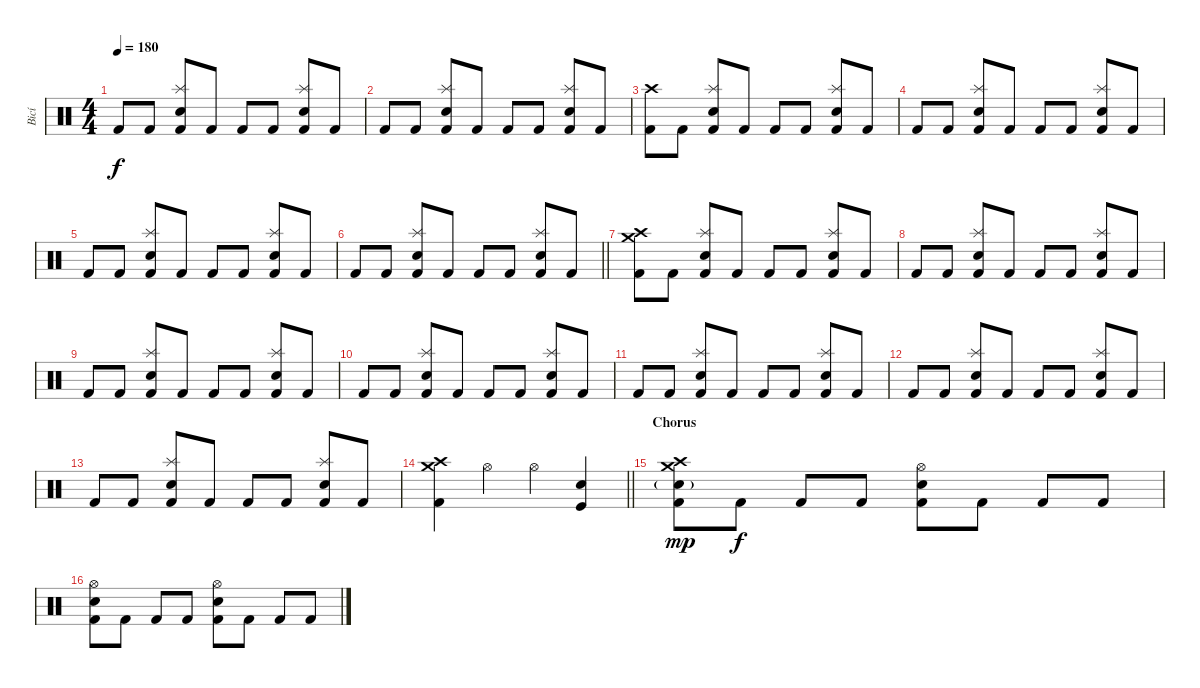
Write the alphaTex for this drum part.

\track ("Bicí" "Bicí") {instrument percussion}
\staff {score}
\articulation defaults
\ts (4 4)
\tempo 180
\clef neutral
\ks c "Kick (hit) 2".8{dy f} "Kick (hit) 2".8
("Splash (hit)" "Electric Snare (hit)" "Kick (hit) 2").8 "Kick (hit) 2".8 "Kick (hit) 2".8 "Kick (hit) 2".8 ("Splash (hit)" "Electric Snare (hit)" "Kick (hit) 2").8 "Kick (hit) 2".8 |
"Kick (hit) 2".8 "Kick (hit) 2".8 ("Splash (hit)" "Electric Snare (hit)" "Kick (hit) 2").8 "Kick (hit) 2".8 "Kick (hit) 2".8 "Kick (hit) 2".8 ("Splash (hit)" "Electric Snare (hit)" "Kick (hit) 2").8 "Kick (hit) 2".8 |
("Crash high (hit)" "Kick (hit) 2").8 "Kick (hit) 2".8 ("Splash (hit)" "Electric Snare (hit)" "Kick (hit) 2").8 "Kick (hit) 2".8 "Kick (hit) 2".8 "Kick (hit) 2".8 ("Splash (hit)" "Electric Snare (hit)" "Kick (hit) 2").8 "Kick (hit) 2".8 |
"Kick (hit) 2".8 "Kick (hit) 2".8 ("Splash (hit)" "Electric Snare (hit)" "Kick (hit) 2").8 "Kick (hit) 2".8 "Kick (hit) 2".8 "Kick (hit) 2".8 ("Splash (hit)" "Electric Snare (hit)" "Kick (hit) 2").8 "Kick (hit) 2".8 |
"Kick (hit) 2".8 "Kick (hit) 2".8 ("Splash (hit)" "Electric Snare (hit)" "Kick (hit) 2").8 "Kick (hit) 2".8 "Kick (hit) 2".8 "Kick (hit) 2".8 ("Splash (hit)" "Electric Snare (hit)" "Kick (hit) 2").8 "Kick (hit) 2".8 |
\barLineRight lightlight "Kick (hit) 2".8 "Kick (hit) 2".8
("Splash (hit)" "Electric Snare (hit)" "Kick (hit) 2").8 "Kick (hit) 2".8 "Kick (hit) 2".8 "Kick (hit) 2".8 ("Splash (hit)" "Electric Snare (hit)" "Kick (hit) 2").8 "Kick (hit) 2".8 |
("Crash high (hit)" "Crash medium (hit)" "Kick (hit) 2").8 "Kick (hit) 2".8 ("Splash (hit)" "Electric Snare (hit)" "Kick (hit) 2").8 "Kick (hit) 2".8 "Kick (hit) 2".8 "Kick (hit) 2".8 ("Splash (hit)" "Electric Snare (hit)" "Kick (hit) 2").8 "Kick (hit) 2".8 |
"Kick (hit) 2".8 "Kick (hit) 2".8 ("Splash (hit)" "Electric Snare (hit)" "Kick (hit) 2").8 "Kick (hit) 2".8 "Kick (hit) 2".8 "Kick (hit) 2".8 ("Splash (hit)" "Electric Snare (hit)" "Kick (hit) 2").8 "Kick (hit) 2".8 |
"Kick (hit) 2".8 "Kick (hit) 2".8 ("Splash (hit)" "Electric Snare (hit)" "Kick (hit) 2").8 "Kick (hit) 2".8 "Kick (hit) 2".8 "Kick (hit) 2".8 ("Splash (hit)" "Electric Snare (hit)" "Kick (hit) 2").8 "Kick (hit) 2".8 |
"Kick (hit) 2".8 "Kick (hit) 2".8 ("Splash (hit)" "Electric Snare (hit)" "Kick (hit) 2").8 "Kick (hit) 2".8 "Kick (hit) 2".8 "Kick (hit) 2".8 ("Splash (hit)" "Electric Snare (hit)" "Kick (hit) 2").8 "Kick (hit) 2".8 |
"Kick (hit) 2".8 "Kick (hit) 2".8 ("Splash (hit)" "Electric Snare (hit)" "Kick (hit) 2").8 "Kick (hit) 2".8 "Kick (hit) 2".8 "Kick (hit) 2".8 ("Splash (hit)" "Electric Snare (hit)" "Kick (hit) 2").8 "Kick (hit) 2".8 |
"Kick (hit) 2".8 "Kick (hit) 2".8 ("Splash (hit)" "Electric Snare (hit)" "Kick (hit) 2").8 "Kick (hit) 2".8 "Kick (hit) 2".8 "Kick (hit) 2".8 ("Splash (hit)" "Electric Snare (hit)" "Kick (hit) 2").8 "Kick (hit) 2".8 |
"Kick (hit) 2".8 "Kick (hit) 2".8 ("Splash (hit)" "Electric Snare (hit)" "Kick (hit) 2").8 "Kick (hit) 2".8 "Kick (hit) 2".8 "Kick (hit) 2".8 ("Splash (hit)" "Electric Snare (hit)" "Kick (hit) 2").8 "Kick (hit) 2".8 |
\barLineRight lightlight
("Crash high (hit)" "Crash medium (hit)" "Kick (hit) 2").4 "Hi-Hat (open)".4 "Hi-Hat (open)".4 ("Kick (hit)" "Electric Snare (hit)").4 |
\section ("" "Chorus")
("Crash high (hit)" "Crash medium (hit)" "Electric Snare (hit)"{g} "Kick (hit) 2").8{dy mp} "Kick (hit) 2".8{dy f} "Kick (hit) 2".8 "Kick (hit) 2".8 ("Hi-Hat (open)" "Electric Snare (hit)" "Kick (hit) 2").8 "Kick (hit) 2".8 "Kick (hit) 2".8 "Kick (hit) 2".8 |
("Hi-Hat (open)" "Electric Snare (hit)" "Kick (hit) 2").8 "Kick (hit) 2".8 "Kick (hit) 2".8 "Kick (hit) 2".8 ("Hi-Hat (open)" "Electric Snare (hit)" "Kick (hit) 2").8 "Kick (hit) 2".8 "Kick (hit) 2".8 "Kick (hit) 2".8
